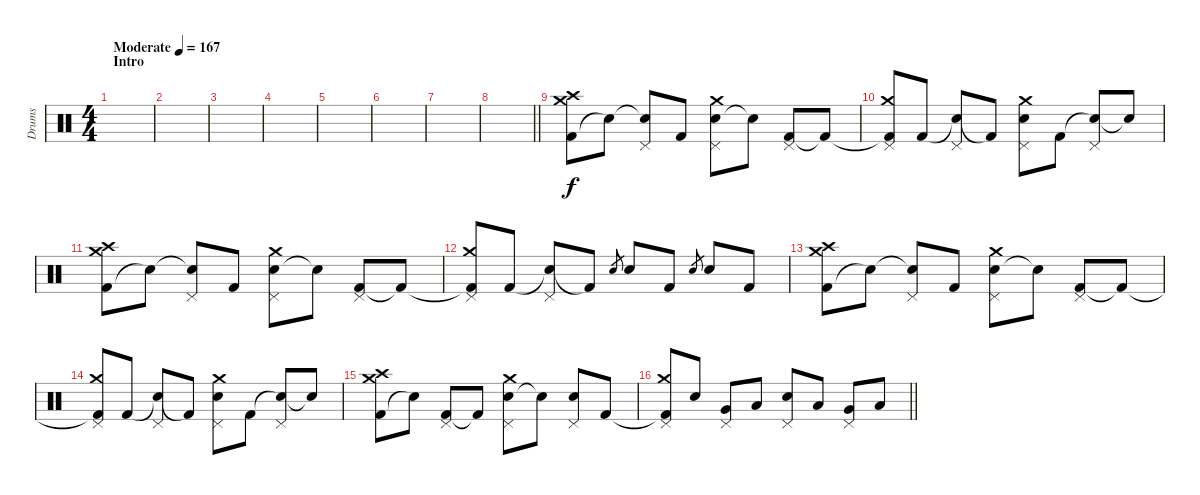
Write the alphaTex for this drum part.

\track ("Drums" "Drums") {instrument percussion}
\staff {score}
\articulation defaults
\ts (4 4)
\section ("" "Intro")
\tempo (167 "Moderate")
\clef neutral
\ks c
|
|
|
|
|
|
|
\barLineRight lightlight
|
("Kick (hit) 2" "Crash medium (hit)" "Crash high (hit)").8 "Snare (hit)"{t}.8 ("Snare (hit)"{t} "Pedal Hi-Hat (hit)").8 "Kick (hit) 2".8 ("Electric Snare (hit)" "Crash medium (hit)" "Pedal Hi-Hat (hit)").8 "Electric Snare (hit)"{t}.8 ("Kick (hit) 2" "Pedal Hi-Hat (hit)").8 "Kick (hit) 2"{t}.8 |
("Kick (hit) 2"{t} "Crash medium (hit)" "Pedal Hi-Hat (hit)").8 "Kick (hit) 2".8 ("Electric Snare (hit)"{t} "Pedal Hi-Hat (hit)").8 "Kick (hit) 2"{t}.8 ("Electric Snare (hit)" "Crash medium (hit)" "Pedal Hi-Hat (hit)").8 "Kick (hit) 2".8 ("Snare (hit)"{t} "Pedal Hi-Hat (hit)").8 "Snare (hit)"{t}.8 |
("Kick (hit) 2" "Crash medium (hit)" "Crash high (hit)").8 "Snare (hit)"{t}.8 ("Snare (hit)"{t} "Pedal Hi-Hat (hit)").8 "Kick (hit) 2".8 ("Electric Snare (hit)" "Crash medium (hit)" "Pedal Hi-Hat (hit)").8 "Electric Snare (hit)"{t}.8 ("Kick (hit) 2" "Pedal Hi-Hat (hit)").8 "Kick (hit) 2"{t}.8 |
("Kick (hit) 2"{t} "Crash medium (hit)" "Pedal Hi-Hat (hit)").8 "Kick (hit) 2".8 ("Electric Snare (hit)"{t} "Pedal Hi-Hat (hit)").8 "Kick (hit) 2"{t}.8 "Electric Snare (hit)".8{gr} "Electric Snare (hit)".8 "Kick (hit) 2".8 "Electric Snare (hit)".8{gr} "Electric Snare (hit)".8 "Kick (hit) 2".8 |
("Kick (hit) 2" "Crash medium (hit)" "Crash high (hit)").8 "Snare (hit)"{t}.8 ("Snare (hit)"{t} "Pedal Hi-Hat (hit)").8 "Kick (hit) 2".8 ("Electric Snare (hit)" "Crash medium (hit)" "Pedal Hi-Hat (hit)").8 "Electric Snare (hit)"{t}.8 ("Kick (hit) 2" "Pedal Hi-Hat (hit)").8 "Kick (hit) 2"{t}.8 |
("Kick (hit) 2"{t} "Crash medium (hit)" "Pedal Hi-Hat (hit)").8 "Kick (hit) 2".8 ("Electric Snare (hit)"{t} "Pedal Hi-Hat (hit)").8 "Kick (hit) 2"{t}.8 ("Electric Snare (hit)" "Crash medium (hit)" "Pedal Hi-Hat (hit)").8 "Kick (hit) 2".8 ("Snare (hit)"{t} "Pedal Hi-Hat (hit)").8 "Snare (hit)"{t}.8 |
("Kick (hit) 2" "Crash medium (hit)" "Crash high (hit)").8 "Snare (hit)"{t}.8 ("Kick (hit) 2" "Pedal Hi-Hat (hit)").8 "Kick (hit) 2"{t}.8 ("Electric Snare (hit)" "Crash medium (hit)" "Pedal Hi-Hat (hit)").8 "Electric Snare (hit)"{t}.8 ("Electric Snare (hit)" "Pedal Hi-Hat (hit)").8 "Kick (hit) 2".8 |
\barLineRight lightlight
("Kick (hit) 2"{t} "Crash medium (hit)" "Pedal Hi-Hat (hit)").8 "Electric Snare (hit)".8 ("Very Low Tom (hit)" "Pedal Hi-Hat (hit)").8 "Low Floor Tom (hit)".8 ("Electric Snare (hit)" "Pedal Hi-Hat (hit)").8 "Low Tom (hit)".8 ("Very Low Tom (hit)" "Pedal Hi-Hat (hit)").8 "Low Floor Tom (hit)".8
